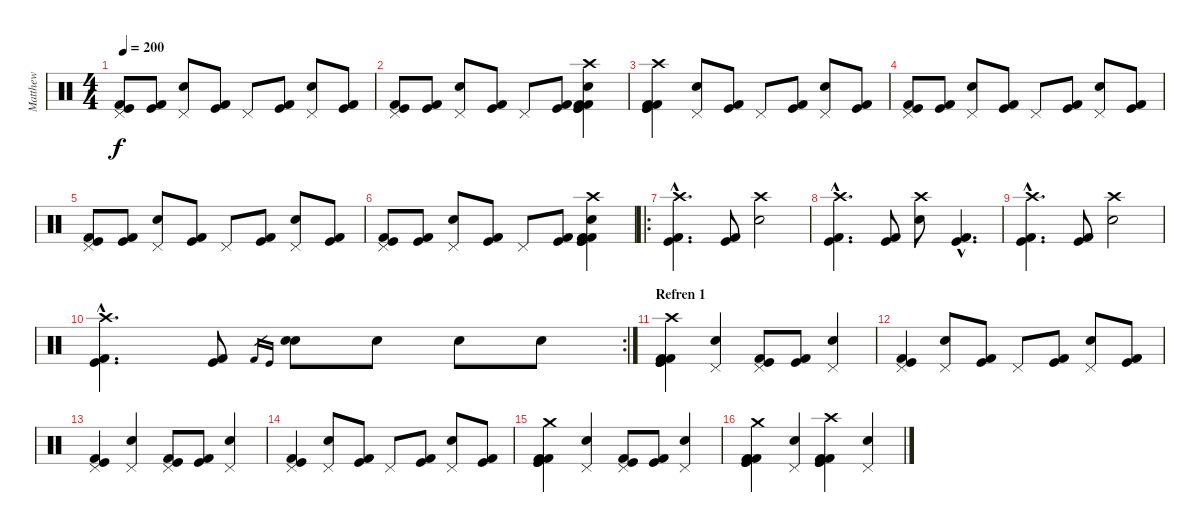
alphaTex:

\track ("Matthew" "Matthew") {instrument percussion}
\staff {score}
\articulation defaults
\ts (4 4)
\tempo 200
\clef neutral
\ks c
("Kick (hit) 2" "Kick (hit)" "Pedal Hi-Hat (hit)").8{dy f} ("Kick (hit) 2" "Kick (hit)").8 ("Snare (hit) 2" "Pedal Hi-Hat (hit)").8 ("Kick (hit) 2" "Kick (hit)").8 "Pedal Hi-Hat (hit)".8 ("Kick (hit) 2" "Kick (hit)").8 ("Pedal Hi-Hat (hit)" "Snare (hit) 2").8 ("Kick (hit) 2" "Kick (hit)").8 |
("Kick (hit) 2" "Kick (hit)" "Pedal Hi-Hat (hit)").8 ("Kick (hit) 2" "Kick (hit)").8 ("Snare (hit) 2" "Pedal Hi-Hat (hit)").8 ("Kick (hit) 2" "Kick (hit)").8 "Pedal Hi-Hat (hit)".8 ("Kick (hit) 2" "Kick (hit)").8 ("Kick (hit)" "Snare (hit) 2" "Crash high (hit)" "Kick (hit) 2" "Kick (hit)" "Kick (hit) 2").4 |
("Kick (hit) 2" "Kick (hit)" "Kick (hit)" "Kick (hit) 2" "Crash high (hit)").4 ("Pedal Hi-Hat (hit)" "Snare (hit) 2").8 ("Kick (hit)" "Kick (hit) 2").8 "Pedal Hi-Hat (hit)".8 ("Kick (hit)" "Kick (hit) 2").8 ("Snare (hit) 2" "Pedal Hi-Hat (hit)").8 ("Kick (hit)" "Kick (hit) 2").8 |
("Kick (hit) 2" "Kick (hit)" "Pedal Hi-Hat (hit)").8 ("Kick (hit) 2" "Kick (hit)").8 ("Snare (hit) 2" "Pedal Hi-Hat (hit)").8 ("Kick (hit) 2" "Kick (hit)").8 "Pedal Hi-Hat (hit)".8 ("Kick (hit) 2" "Kick (hit)").8 ("Pedal Hi-Hat (hit)" "Snare (hit) 2").8 ("Kick (hit) 2" "Kick (hit)").8 |
("Kick (hit) 2" "Kick (hit)" "Pedal Hi-Hat (hit)").8 ("Kick (hit) 2" "Kick (hit)").8 ("Snare (hit) 2" "Pedal Hi-Hat (hit)").8 ("Kick (hit) 2" "Kick (hit)").8 "Pedal Hi-Hat (hit)".8 ("Kick (hit) 2" "Kick (hit)").8 ("Pedal Hi-Hat (hit)" "Snare (hit) 2").8 ("Kick (hit) 2" "Kick (hit)").8 |
("Kick (hit) 2" "Kick (hit)" "Pedal Hi-Hat (hit)").8 ("Kick (hit) 2" "Kick (hit)").8 ("Snare (hit) 2" "Pedal Hi-Hat (hit)").8 ("Kick (hit) 2" "Kick (hit)").8 "Pedal Hi-Hat (hit)".8 ("Kick (hit) 2" "Kick (hit)").8 ("Kick (hit)" "Snare (hit) 2" "Crash high (hit)" "Kick (hit) 2" "Kick (hit)" "Kick (hit) 2").4 |
\ro
("Kick (hit) 2"{hac} "Kick (hit)"{hac} "Crash high (hit)"{hac}).4{d} ("Kick (hit) 2" "Kick (hit)").8 ("Snare (hit) 2" "Crash high (hit)").2 |
("Kick (hit) 2"{hac} "Kick (hit)"{hac} "Crash high (hit)"{hac}).4{d} ("Kick (hit) 2" "Kick (hit)").8 ("Snare (hit) 2" "Crash high (hit)").8 ("Kick (hit) 2"{hac} "Kick (hit)"{hac}).4{d} |
("Kick (hit) 2"{hac} "Kick (hit)"{hac} "Crash high (hit)"{hac}).4{d} ("Kick (hit) 2" "Kick (hit)").8 ("Snare (hit) 2" "Crash high (hit)").2 |
\rc 2
("Kick (hit) 2"{hac} "Kick (hit)"{hac} "Crash high (hit)"{hac}).4{d} ("Kick (hit) 2" "Kick (hit)").8 "Kick (hit) 2".16{gr} "Kick (hit)".16{gr} ("Snare (hit) 2" "Snare (hit)").8 "Snare (hit) 2".8 "Snare (hit) 2".8 "Snare (hit) 2".8 |
\section ("" "Refren 1")
("Kick (hit)" "Kick (hit) 2" "Kick (hit)" "Kick (hit) 2" "Crash high (hit)").4 ("Snare (hit) 2" "Pedal Hi-Hat (hit)").4 ("Kick (hit) 2" "Pedal Hi-Hat (hit)" "Kick (hit)").8 ("Kick (hit)" "Kick (hit) 2").8 ("Snare (hit) 2" "Pedal Hi-Hat (hit)").4 |
("Kick (hit) 2" "Kick (hit)" "Pedal Hi-Hat (hit)").4 ("Snare (hit) 2" "Pedal Hi-Hat (hit)").8 ("Kick (hit) 2" "Kick (hit)").8 "Pedal Hi-Hat (hit)".8 ("Kick (hit) 2" "Kick (hit)").8 ("Snare (hit) 2" "Pedal Hi-Hat (hit)").8 ("Kick (hit)" "Kick (hit) 2").8 |
("Kick (hit)" "Kick (hit) 2" "Pedal Hi-Hat (hit)").4 ("Snare (hit) 2" "Pedal Hi-Hat (hit)").4 ("Kick (hit) 2" "Pedal Hi-Hat (hit)" "Kick (hit)").8 ("Kick (hit)" "Kick (hit) 2").8 ("Snare (hit) 2" "Pedal Hi-Hat (hit)").4 |
("Kick (hit) 2" "Kick (hit)" "Pedal Hi-Hat (hit)").4 ("Snare (hit) 2" "Pedal Hi-Hat (hit)").8 ("Kick (hit) 2" "Kick (hit)").8 "Pedal Hi-Hat (hit)".8 ("Kick (hit) 2" "Kick (hit)").8 ("Snare (hit) 2" "Pedal Hi-Hat (hit)").8 ("Kick (hit)" "Kick (hit) 2").8 |
("Kick (hit)" "Kick (hit) 2" "Kick (hit)" "Kick (hit) 2" "Crash medium (hit)").4 ("Snare (hit) 2" "Pedal Hi-Hat (hit)").4 ("Kick (hit) 2" "Pedal Hi-Hat (hit)" "Kick (hit)").8 ("Kick (hit)" "Kick (hit) 2").8 ("Snare (hit) 2" "Pedal Hi-Hat (hit)").4 |
("Kick (hit)" "Kick (hit) 2" "Kick (hit)" "Kick (hit) 2" "Crash medium (hit)").4 ("Snare (hit) 2" "Pedal Hi-Hat (hit)").4 ("Kick (hit) 2" "Crash high (hit)" "Kick (hit)" "Kick (hit) 2" "Kick (hit)").4 ("Snare (hit) 2" "Pedal Hi-Hat (hit)").4
